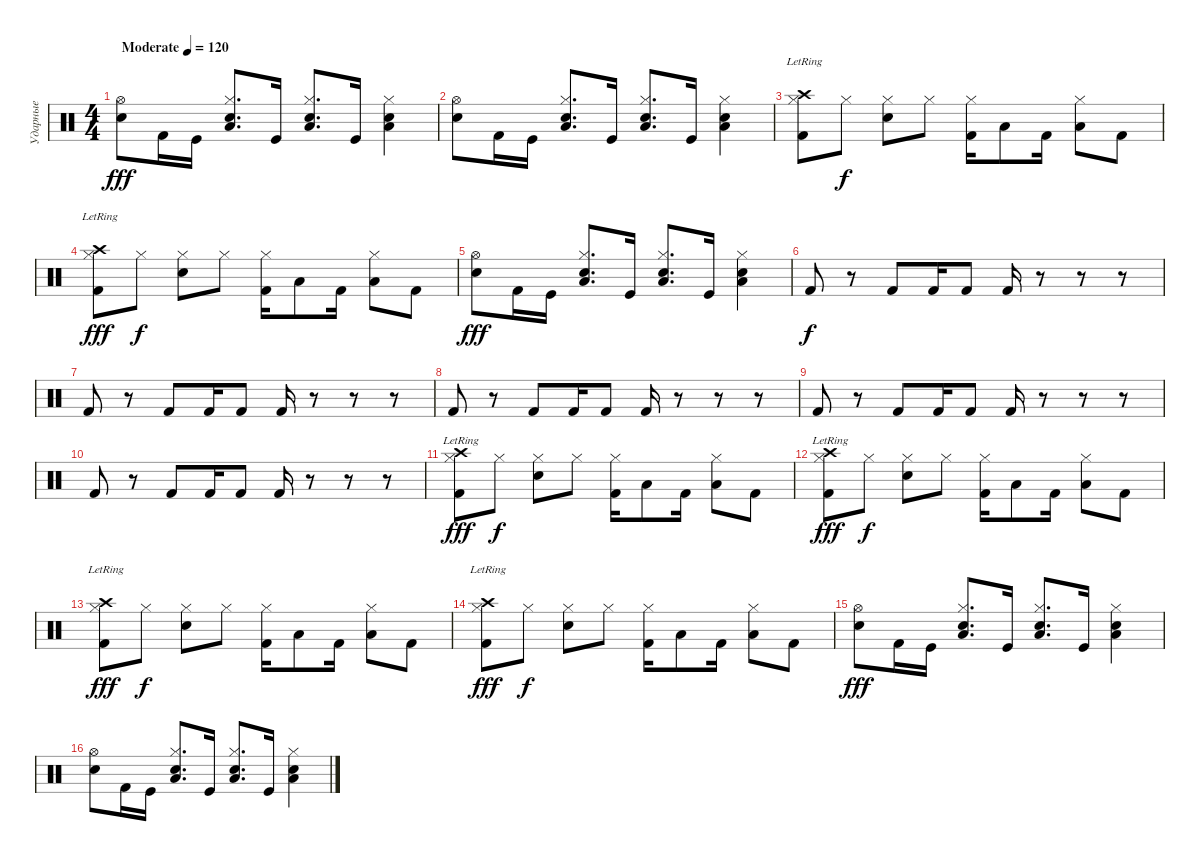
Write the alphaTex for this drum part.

\track ("Ударные" "Ударные") {instrument percussion}
\staff {score}
\articulation defaults
\ts (4 4)
\tempo (120 "Moderate")
\clef neutral
\ks c
("Hi-Hat (open)" "Snare (hit) 2").8{dy fff} "Kick (hit) 2".16 "Kick (hit)".16 ("Hi-Hat (closed)" "Low Tom (hit)" "Snare (hit) 2").8{d} "Kick (hit)".16 ("Hi-Hat (closed)" "Low Tom (hit)" "Snare (hit) 2").8{d} "Kick (hit)".16 ("Hi-Hat (closed)" "Low Tom (hit)" "Snare (hit) 2").4 |
("Hi-Hat (open)" "Snare (hit) 2").8 "Kick (hit) 2".16 "Kick (hit)".16 ("Hi-Hat (closed)" "Low Tom (hit)" "Snare (hit) 2").8{d} "Kick (hit)".16 ("Hi-Hat (closed)" "Low Tom (hit)" "Snare (hit) 2").8{d} "Kick (hit)".16 ("Hi-Hat (closed)" "Low Tom (hit)" "Snare (hit) 2").4 |
("Hi-Hat (closed)" "Kick (hit) 2" "Crash high (hit)"{lr}).8 "Hi-Hat (closed)".8{dy f} ("Hi-Hat (closed)" "Snare (hit) 2").8 "Hi-Hat (closed)".8 ("Kick (hit) 2" "Hi-Hat (closed)").16 "Low Tom (hit)".8 "Kick (hit) 2".16 ("Low Tom (hit)" "Hi-Hat (closed)").8 "Kick (hit) 2".8 |
("Hi-Hat (closed)" "Kick (hit) 2" "Crash high (hit)"{lr}).8{dy fff} "Hi-Hat (closed)".8{dy f} ("Hi-Hat (closed)" "Snare (hit) 2").8 "Hi-Hat (closed)".8 ("Kick (hit) 2" "Hi-Hat (closed)").16 "Low Tom (hit)".8 "Kick (hit) 2".16 ("Low Tom (hit)" "Hi-Hat (closed)").8 "Kick (hit) 2".8 |
("Hi-Hat (open)" "Snare (hit) 2").8{dy fff} "Kick (hit) 2".16 "Kick (hit)".16 ("Hi-Hat (closed)" "Low Tom (hit)" "Snare (hit) 2").8{d} "Kick (hit)".16 ("Hi-Hat (closed)" "Low Tom (hit)" "Snare (hit) 2").8{d} "Kick (hit)".16 ("Hi-Hat (closed)" "Low Tom (hit)" "Snare (hit) 2").4 |
"Kick (hit) 2".8{dy f} r.8 "Kick (hit) 2".8 "Kick (hit) 2".16 "Kick (hit) 2".8 "Kick (hit) 2".16 r.8 r.8 r.8 |
"Kick (hit) 2".8 r.8 "Kick (hit) 2".8 "Kick (hit) 2".16 "Kick (hit) 2".8 "Kick (hit) 2".16 r.8 r.8 r.8 |
"Kick (hit) 2".8 r.8 "Kick (hit) 2".8 "Kick (hit) 2".16 "Kick (hit) 2".8 "Kick (hit) 2".16 r.8 r.8 r.8 |
"Kick (hit) 2".8 r.8 "Kick (hit) 2".8 "Kick (hit) 2".16 "Kick (hit) 2".8 "Kick (hit) 2".16 r.8 r.8 r.8 |
"Kick (hit) 2".8 r.8 "Kick (hit) 2".8 "Kick (hit) 2".16 "Kick (hit) 2".8 "Kick (hit) 2".16 r.8 r.8 r.8 |
("Hi-Hat (closed)" "Kick (hit) 2" "Crash high (hit)"{lr}).8{dy fff} "Hi-Hat (closed)".8{dy f} ("Hi-Hat (closed)" "Snare (hit) 2").8 "Hi-Hat (closed)".8 ("Kick (hit) 2" "Hi-Hat (closed)").16 "Low Tom (hit)".8 "Kick (hit) 2".16 ("Low Tom (hit)" "Hi-Hat (closed)").8 "Kick (hit) 2".8 |
("Hi-Hat (closed)" "Kick (hit) 2" "Crash high (hit)"{lr}).8{dy fff} "Hi-Hat (closed)".8{dy f} ("Hi-Hat (closed)" "Snare (hit) 2").8 "Hi-Hat (closed)".8 ("Kick (hit) 2" "Hi-Hat (closed)").16 "Low Tom (hit)".8 "Kick (hit) 2".16 ("Low Tom (hit)" "Hi-Hat (closed)").8 "Kick (hit) 2".8 |
("Hi-Hat (closed)" "Kick (hit) 2" "Crash high (hit)"{lr}).8{dy fff} "Hi-Hat (closed)".8{dy f} ("Hi-Hat (closed)" "Snare (hit) 2").8 "Hi-Hat (closed)".8 ("Kick (hit) 2" "Hi-Hat (closed)").16 "Low Tom (hit)".8 "Kick (hit) 2".16 ("Low Tom (hit)" "Hi-Hat (closed)").8 "Kick (hit) 2".8 |
("Hi-Hat (closed)" "Kick (hit) 2" "Crash high (hit)"{lr}).8{dy fff} "Hi-Hat (closed)".8{dy f} ("Hi-Hat (closed)" "Snare (hit) 2").8 "Hi-Hat (closed)".8 ("Kick (hit) 2" "Hi-Hat (closed)").16 "Low Tom (hit)".8 "Kick (hit) 2".16 ("Low Tom (hit)" "Hi-Hat (closed)").8 "Kick (hit) 2".8 |
("Hi-Hat (open)" "Snare (hit) 2").8{dy fff} "Kick (hit) 2".16 "Kick (hit)".16 ("Hi-Hat (closed)" "Low Tom (hit)" "Snare (hit) 2").8{d} "Kick (hit)".16 ("Hi-Hat (closed)" "Low Tom (hit)" "Snare (hit) 2").8{d} "Kick (hit)".16 ("Hi-Hat (closed)" "Low Tom (hit)" "Snare (hit) 2").4 |
("Hi-Hat (open)" "Snare (hit) 2").8 "Kick (hit) 2".16 "Kick (hit)".16 ("Hi-Hat (closed)" "Low Tom (hit)" "Snare (hit) 2").8{d} "Kick (hit)".16 ("Hi-Hat (closed)" "Low Tom (hit)" "Snare (hit) 2").8{d} "Kick (hit)".16 ("Hi-Hat (closed)" "Low Tom (hit)" "Snare (hit) 2").4
